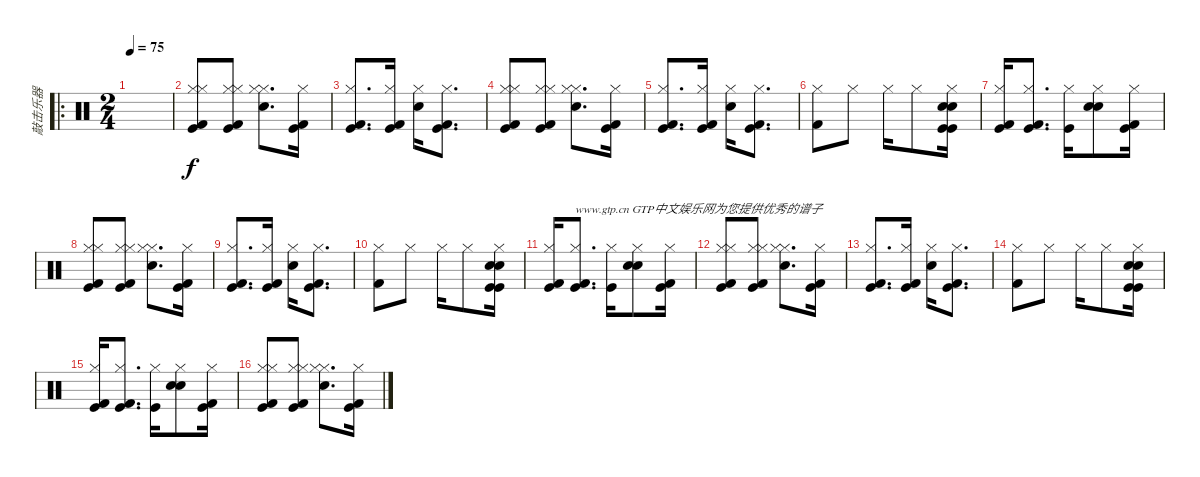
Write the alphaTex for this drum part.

\track ("敲击乐器" "敲击乐器") {instrument percussion}
\staff {score}
\articulation defaults
\ro
\ts (2 4)
\tempo 75
\clef neutral
\ks c
|
("Kick (hit) 2" "Hi-Hat (closed)" "Kick (hit)" "Hi-Hat (closed)").8 ("Hi-Hat (closed)" "Kick (hit) 2" "Kick (hit)" "Hi-Hat (closed)").8 ("Hi-Hat (closed)" "Snare (hit) 2" "Hi-Hat (closed)").8{d} ("Hi-Hat (closed)" "Kick (hit)" "Kick (hit) 2").16 |
("Kick (hit) 2" "Hi-Hat (closed)" "Kick (hit)").8{d} ("Hi-Hat (closed)" "Kick (hit) 2" "Kick (hit)").16 ("Hi-Hat (closed)" "Snare (hit) 2").16 ("Hi-Hat (closed)" "Kick (hit)" "Kick (hit) 2").8{d} |
("Kick (hit) 2" "Hi-Hat (closed)" "Kick (hit)" "Hi-Hat (closed)").8 ("Hi-Hat (closed)" "Kick (hit) 2" "Kick (hit)" "Hi-Hat (closed)").8 ("Hi-Hat (closed)" "Snare (hit) 2" "Hi-Hat (closed)").8{d} ("Hi-Hat (closed)" "Kick (hit)" "Kick (hit) 2").16 |
("Kick (hit) 2" "Hi-Hat (closed)" "Kick (hit)").8{d} ("Hi-Hat (closed)" "Kick (hit) 2" "Kick (hit)").16 ("Hi-Hat (closed)" "Snare (hit) 2").16 ("Hi-Hat (closed)" "Kick (hit)" "Kick (hit) 2").8{d} |
("Kick (hit) 2" "Hi-Hat (closed)").8 "Hi-Hat (closed)".8 "Hi-Hat (closed)".16 "Hi-Hat (closed)".8 ("Hand Clap (hit)" "Snare (hit) 2" "Hi-Hat (closed)" "Kick (hit)" "Kick (hit)").16 |
("Kick (hit)" "Kick (hit) 2" "Hi-Hat (closed)").16 ("Kick (hit)" "Kick (hit) 2" "Hi-Hat (closed)").8{d} ("Kick (hit)" "Hi-Hat (closed)").16 ("Hand Clap (hit)" "Snare (hit) 2" "Hi-Hat (closed)").8 ("Kick (hit) 2" "Kick (hit)" "Hi-Hat (closed)").16 |
("Kick (hit) 2" "Hi-Hat (closed)" "Kick (hit)" "Hi-Hat (closed)").8 ("Hi-Hat (closed)" "Kick (hit) 2" "Kick (hit)" "Hi-Hat (closed)").8 ("Hi-Hat (closed)" "Snare (hit) 2" "Hi-Hat (closed)").8{d} ("Hi-Hat (closed)" "Kick (hit)" "Kick (hit) 2").16 |
("Kick (hit) 2" "Hi-Hat (closed)" "Kick (hit)").8{d} ("Hi-Hat (closed)" "Kick (hit) 2" "Kick (hit)").16 ("Hi-Hat (closed)" "Snare (hit) 2").16 ("Hi-Hat (closed)" "Kick (hit)" "Kick (hit) 2").8{d} |
("Kick (hit) 2" "Hi-Hat (closed)").8 "Hi-Hat (closed)".8 "Hi-Hat (closed)".16 "Hi-Hat (closed)".8 ("Hand Clap (hit)" "Snare (hit) 2" "Hi-Hat (closed)" "Kick (hit)" "Kick (hit)").16 |
("Kick (hit)" "Kick (hit) 2" "Hi-Hat (closed)").16 ("Kick (hit)" "Kick (hit) 2" "Hi-Hat (closed)").8{d txt "www.gtp.cn GTP中文娱乐网为您提供优秀的谱子"} ("Kick (hit)" "Hi-Hat (closed)").16 ("Hand Clap (hit)" "Snare (hit) 2" "Hi-Hat (closed)").8 ("Kick (hit) 2" "Kick (hit)" "Hi-Hat (closed)").16 |
("Kick (hit) 2" "Hi-Hat (closed)" "Kick (hit)" "Hi-Hat (closed)").8 ("Hi-Hat (closed)" "Kick (hit) 2" "Kick (hit)" "Hi-Hat (closed)").8 ("Hi-Hat (closed)" "Snare (hit) 2" "Hi-Hat (closed)").8{d} ("Hi-Hat (closed)" "Kick (hit)" "Kick (hit) 2").16 |
("Kick (hit) 2" "Hi-Hat (closed)" "Kick (hit)").8{d} ("Hi-Hat (closed)" "Kick (hit) 2" "Kick (hit)").16 ("Hi-Hat (closed)" "Snare (hit) 2").16 ("Hi-Hat (closed)" "Kick (hit)" "Kick (hit) 2").8{d} |
("Kick (hit) 2" "Hi-Hat (closed)").8 "Hi-Hat (closed)".8 "Hi-Hat (closed)".16 "Hi-Hat (closed)".8 ("Hand Clap (hit)" "Snare (hit) 2" "Hi-Hat (closed)" "Kick (hit)" "Kick (hit)").16 |
("Kick (hit)" "Kick (hit) 2" "Hi-Hat (closed)").16 ("Kick (hit)" "Kick (hit) 2" "Hi-Hat (closed)").8{d} ("Kick (hit)" "Hi-Hat (closed)").16 ("Hand Clap (hit)" "Snare (hit) 2" "Hi-Hat (closed)").8 ("Kick (hit) 2" "Kick (hit)" "Hi-Hat (closed)").16 |
("Kick (hit) 2" "Hi-Hat (closed)" "Kick (hit)" "Hi-Hat (closed)").8 ("Hi-Hat (closed)" "Kick (hit) 2" "Kick (hit)" "Hi-Hat (closed)").8 ("Hi-Hat (closed)" "Snare (hit) 2" "Hi-Hat (closed)").8{d} ("Hi-Hat (closed)" "Kick (hit)" "Kick (hit) 2").16
